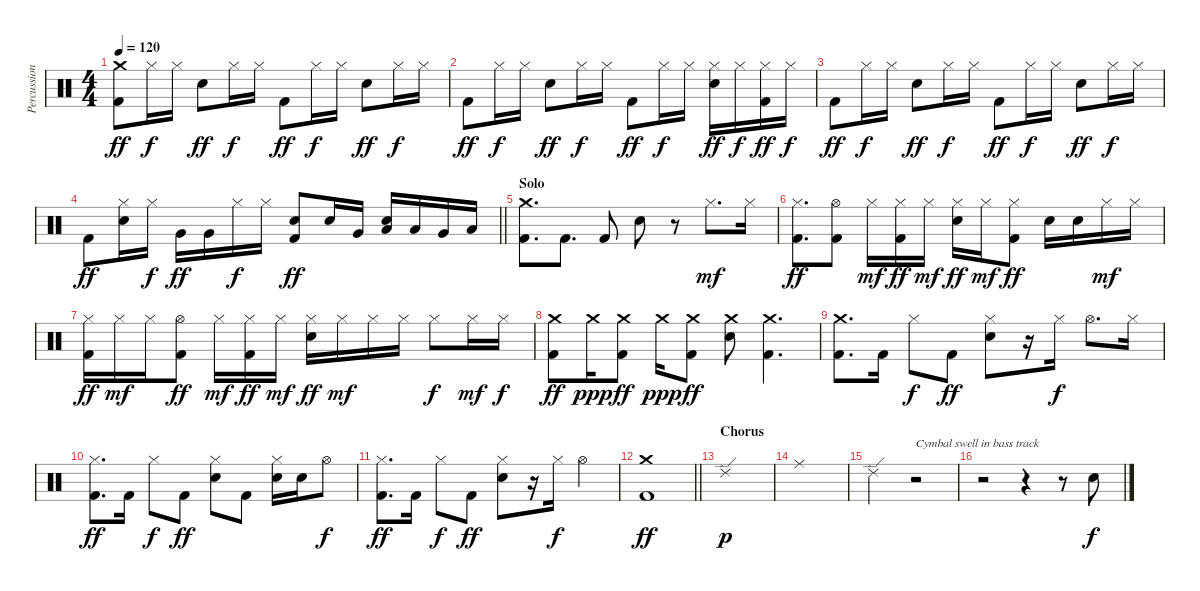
\track ("Percussion" "Percussion") {instrument percussion}
\staff {score}
\articulation defaults
\ts (4 4)
\tempo 120
\clef neutral
\ks c
("Crash medium (hit)" "Kick (hit) 2").8{dy ff} "Hi-Hat (closed)".16{dy f} "Hi-Hat (closed)".16 "Electric Snare (hit)".8{dy ff} "Hi-Hat (closed)".16{dy f} "Hi-Hat (closed)".16 "Kick (hit) 2".8{dy ff} "Hi-Hat (closed)".16{dy f} "Hi-Hat (closed)".16 "Electric Snare (hit)".8{dy ff} "Hi-Hat (closed)".16{dy f} "Hi-Hat (closed)".16 |
"Kick (hit) 2".8{dy ff} "Hi-Hat (closed)".16{dy f} "Hi-Hat (closed)".16 "Electric Snare (hit)".8{dy ff} "Hi-Hat (closed)".16{dy f} "Hi-Hat (closed)".16 "Kick (hit) 2".8{dy ff} "Hi-Hat (closed)".16{dy f} "Hi-Hat (closed)".16 ("Hi-Hat (closed)" "Electric Snare (hit)").16{dy ff} "Hi-Hat (closed)".16{dy f} ("Hi-Hat (closed)" "Kick (hit) 2").16{dy ff} "Hi-Hat (closed)".16{dy f} |
"Kick (hit) 2".8{dy ff} "Hi-Hat (closed)".16{dy f} "Hi-Hat (closed)".16 "Electric Snare (hit)".8{dy ff} "Hi-Hat (closed)".16{dy f} "Hi-Hat (closed)".16 "Kick (hit) 2".8{dy ff} "Hi-Hat (closed)".16{dy f} "Hi-Hat (closed)".16 "Electric Snare (hit)".8{dy ff} "Hi-Hat (closed)".16{dy f} "Hi-Hat (closed)".16 |
\barLineRight lightlight "Kick (hit) 2".8{dy ff}
("Hi-Hat (closed)" "Electric Snare (hit)").16 "Hi-Hat (closed)".16{dy f} "Very Low Tom (hit)".16{dy ff} "Very Low Tom (hit)".16 "Hi-Hat (closed)".16{dy f} "Hi-Hat (closed)".16 ("Electric Snare (hit)" "Kick (hit) 2").8{dy ff} "Electric Snare (hit)".16 "Very Low Tom (hit)".16 ("Electric Snare (hit)" "Low Tom (hit)").16 "Low Tom (hit)".16 "Very Low Tom (hit)".16 "Low Floor Tom (hit)".16 |
\section ("" "Solo")
("Crash medium (hit)" "Kick (hit) 2").8{d} "Kick (hit) 2".8{d} "Kick (hit) 2".8 "Electric Snare (hit)".8 r.8 "Hi-Hat (closed)".8{d dy mf} "Hi-Hat (closed)".16 |
("Hi-Hat (closed)" "Kick (hit) 2").8{d dy ff} ("Hi-Hat (open)" "Kick (hit) 2").8 "Hi-Hat (closed)".16{dy mf} ("Hi-Hat (closed)" "Kick (hit) 2").16{dy ff} "Hi-Hat (closed)".16{dy mf} ("Hi-Hat (closed)" "Electric Snare (hit)").16{dy ff} "Hi-Hat (closed)".16{dy mf} ("Hi-Hat (closed)" "Kick (hit) 2").8{dy ff} "Electric Snare (hit)".16 "Electric Snare (hit)".16 "Hi-Hat (closed)".16{dy mf} "Hi-Hat (closed)".16 |
("Hi-Hat (closed)" "Kick (hit) 2").16{dy ff} "Hi-Hat (closed)".16{dy mf} "Hi-Hat (closed)".16 ("Hi-Hat (open)" "Kick (hit) 2").8{dy ff} "Hi-Hat (closed)".16{dy mf} ("Hi-Hat (closed)" "Kick (hit) 2").16{dy ff} "Hi-Hat (closed)".16{dy mf} ("Hi-Hat (closed)" "Electric Snare (hit)").16{dy ff} "Hi-Hat (closed)".16{dy mf} "Hi-Hat (closed)".16 "Hi-Hat (closed)".16 "Hi-Hat (closed)".8{dy f} "Hi-Hat (closed)".16{dy mf} "Hi-Hat (closed)".16{dy f} |
("Crash medium (hit)" "Kick (hit) 2").8{dy ff} "Crash medium (hit)".16{dy ppp} ("Crash medium (hit)" "Kick (hit) 2").8{dy ff} "Crash medium (hit)".16{dy ppp} ("Crash medium (hit)" "Kick (hit) 2").8{dy ff} ("Crash medium (hit)" "Electric Snare (hit)").8 ("Crash medium (hit)" "Kick (hit) 2").4{d} |
("Crash medium (hit)" "Kick (hit) 2").8{d} "Kick (hit) 2".16 "Hi-Hat (closed)".8{dy f} "Kick (hit) 2".8{dy ff} ("Hi-Hat (closed)" "Electric Snare (hit)").8 r.16 "Hi-Hat (closed)".16{dy f} "Hi-Hat (open)".8{d} "Hi-Hat (closed)".16 |
("Hi-Hat (closed)" "Kick (hit) 2").8{d dy ff} "Kick (hit) 2".16 "Hi-Hat (closed)".8{dy f} "Kick (hit) 2".8{dy ff} ("Hi-Hat (closed)" "Electric Snare (hit)").8 "Kick (hit) 2".8 ("Hi-Hat (closed)" "Electric Snare (hit)").16 "Electric Snare (hit)".16 "Hi-Hat (open)".8{dy f} |
("Hi-Hat (closed)" "Kick (hit) 2").8{d dy ff} "Kick (hit) 2".16 "Hi-Hat (closed)".8{dy f} "Kick (hit) 2".8{dy ff} ("Hi-Hat (closed)" "Electric Snare (hit)").8 r.16 "Hi-Hat (closed)".16{dy f} "Hi-Hat (open)".4 |
\barLineRight lightlight
("Crash medium (hit)" "Kick (hit) 2").1{dy ff} |
\section ("" "Chorus")
"Ride (edge) 2".1{dy p} |
"Ride (middle)".1 |
"Ride (edge) 2".2 r.2{txt "Cymbal swell in bass track"} |
r.2 r.4 r.8 "Electric Snare (hit)".8{dy f}
